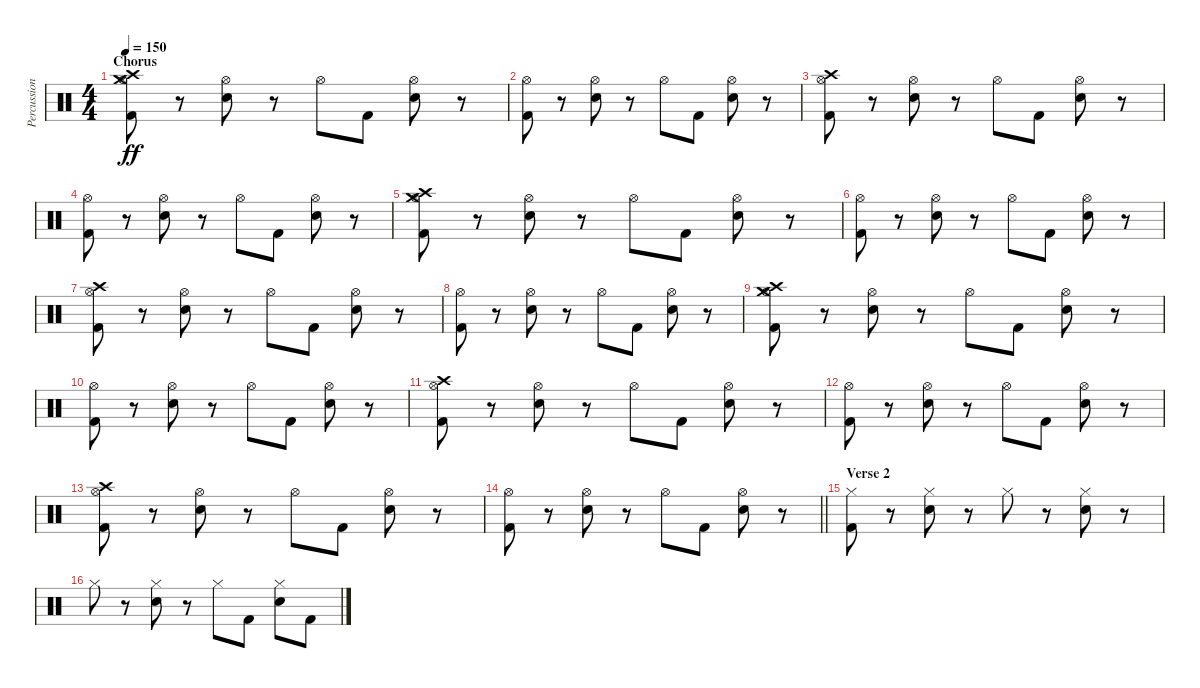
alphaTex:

\track ("Percussion" "Percussion") {instrument percussion}
\staff {score}
\articulation defaults
\ts (4 4)
\section ("" "Chorus")
\tempo 150
\clef neutral
\ks c
("Hi-Hat (open)" "Crash high (hit)" "Crash medium (hit)" "Kick (hit) 2").8{dy ff} r.8 ("Hi-Hat (open)" "Snare (hit) 2").8 r.8 "Hi-Hat (open)".8 "Kick (hit) 2".8 ("Hi-Hat (open)" "Snare (hit) 2").8 r.8 |
("Hi-Hat (open)" "Kick (hit) 2").8 r.8 ("Hi-Hat (open)" "Snare (hit) 2").8 r.8 "Hi-Hat (open)".8 "Kick (hit) 2".8 ("Hi-Hat (open)" "Snare (hit) 2").8 r.8 |
("Hi-Hat (open)" "Crash high (hit)" "Kick (hit) 2").8 r.8 ("Hi-Hat (open)" "Snare (hit) 2").8 r.8 "Hi-Hat (open)".8 "Kick (hit) 2".8 ("Hi-Hat (open)" "Snare (hit) 2").8 r.8 |
("Hi-Hat (open)" "Kick (hit) 2").8 r.8 ("Hi-Hat (open)" "Snare (hit) 2").8 r.8 "Hi-Hat (open)".8 "Kick (hit) 2".8 ("Hi-Hat (open)" "Snare (hit) 2").8 r.8 |
("Hi-Hat (open)" "Crash high (hit)" "Crash medium (hit)" "Kick (hit) 2").8 r.8 ("Hi-Hat (open)" "Snare (hit) 2").8 r.8 "Hi-Hat (open)".8 "Kick (hit) 2".8 ("Hi-Hat (open)" "Snare (hit) 2").8 r.8 |
("Hi-Hat (open)" "Kick (hit) 2").8 r.8 ("Hi-Hat (open)" "Snare (hit) 2").8 r.8 "Hi-Hat (open)".8 "Kick (hit) 2".8 ("Hi-Hat (open)" "Snare (hit) 2").8 r.8 |
("Hi-Hat (open)" "Crash high (hit)" "Kick (hit) 2").8 r.8 ("Hi-Hat (open)" "Snare (hit) 2").8 r.8 "Hi-Hat (open)".8 "Kick (hit) 2".8 ("Hi-Hat (open)" "Snare (hit) 2").8 r.8 |
("Hi-Hat (open)" "Kick (hit) 2").8 r.8 ("Hi-Hat (open)" "Snare (hit) 2").8 r.8 "Hi-Hat (open)".8 "Kick (hit) 2".8 ("Hi-Hat (open)" "Snare (hit) 2").8 r.8 |
("Hi-Hat (open)" "Crash high (hit)" "Crash medium (hit)" "Kick (hit) 2").8 r.8 ("Hi-Hat (open)" "Snare (hit) 2").8 r.8 "Hi-Hat (open)".8 "Kick (hit) 2".8 ("Hi-Hat (open)" "Snare (hit) 2").8 r.8 |
("Hi-Hat (open)" "Kick (hit) 2").8 r.8 ("Hi-Hat (open)" "Snare (hit) 2").8 r.8 "Hi-Hat (open)".8 "Kick (hit) 2".8 ("Hi-Hat (open)" "Snare (hit) 2").8 r.8 |
("Hi-Hat (open)" "Crash high (hit)" "Kick (hit) 2").8 r.8 ("Hi-Hat (open)" "Snare (hit) 2").8 r.8 "Hi-Hat (open)".8 "Kick (hit) 2".8 ("Hi-Hat (open)" "Snare (hit) 2").8 r.8 |
("Hi-Hat (open)" "Kick (hit) 2").8 r.8 ("Hi-Hat (open)" "Snare (hit) 2").8 r.8 "Hi-Hat (open)".8 "Kick (hit) 2".8 ("Hi-Hat (open)" "Snare (hit) 2").8 r.8 |
("Hi-Hat (open)" "Crash high (hit)" "Kick (hit) 2").8 r.8 ("Hi-Hat (open)" "Snare (hit) 2").8 r.8 "Hi-Hat (open)".8 "Kick (hit) 2".8 ("Hi-Hat (open)" "Snare (hit) 2").8 r.8 |
\barLineRight lightlight
("Hi-Hat (open)" "Kick (hit) 2").8 r.8 ("Hi-Hat (open)" "Snare (hit) 2").8 r.8 "Hi-Hat (open)".8 "Kick (hit) 2".8 ("Hi-Hat (open)" "Snare (hit) 2").8 r.8 |
\section ("" "Verse 2")
("Hi-Hat (closed)" "Kick (hit) 2").8 r.8 ("Hi-Hat (closed)" "Snare (hit) 2").8 r.8 "Hi-Hat (closed)".8 r.8 ("Hi-Hat (closed)" "Snare (hit) 2").8 r.8 |
"Hi-Hat (closed)".8 r.8 ("Hi-Hat (closed)" "Snare (hit) 2").8 r.8 "Hi-Hat (closed)".8 "Kick (hit) 2".8 ("Hi-Hat (closed)" "Snare (hit) 2").8 "Kick (hit) 2".8
